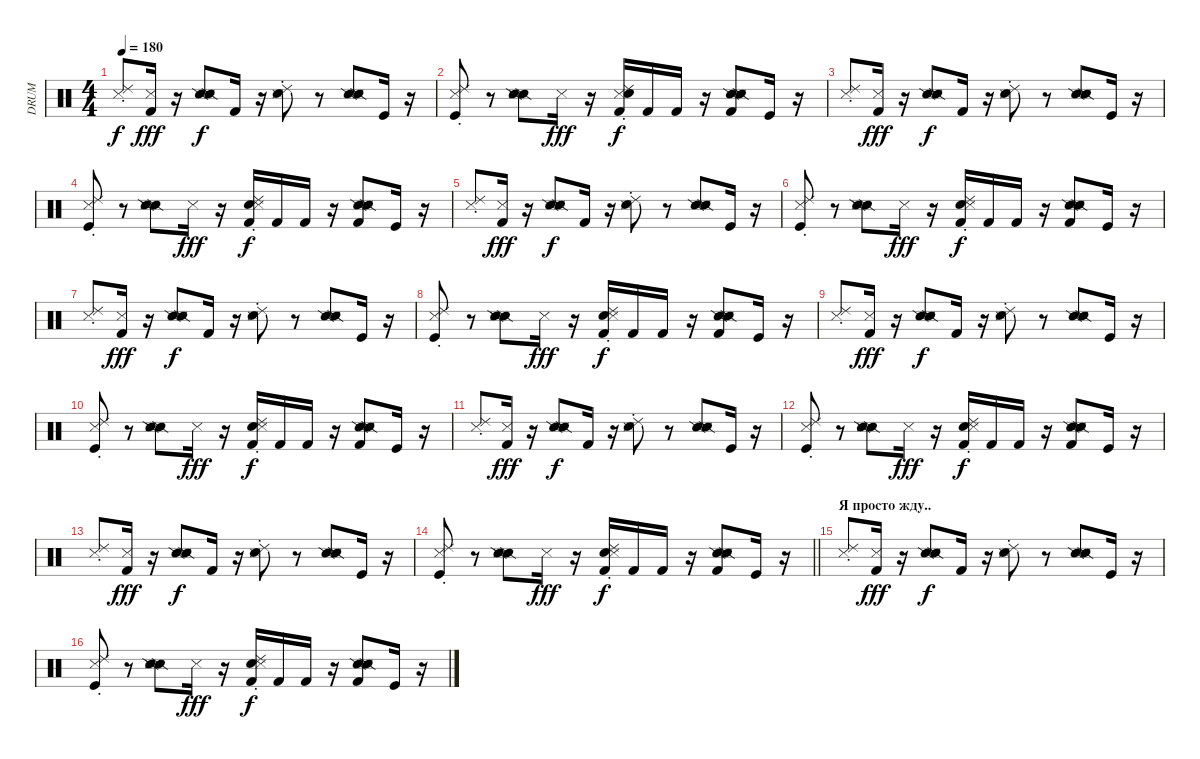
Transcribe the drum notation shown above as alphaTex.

\track ("DRUM" "DRUM") {instrument percussion}
\staff {score}
\articulation defaults
\ts (4 4)
\tempo 180
\clef neutral
\ks c
("Metronome (hit)" "Ride (choke) 2").8{dy f} ("Snare (side stick) 3" "Kick (hit) 2").16{dy fff} r.16 ("Snare (side stick) 2" "Snare (side stick) 2" "Metronome (hit)").8{dy f} "Kick (hit) 2".16 r.16 ("Snare (hit) 2" "Metronome (hit)" "Ride (choke) 2").8 r.8 ("Snare (side stick) 2" "Snare (side stick) 2" "Metronome (hit)").8 "Kick (hit)".16 r.16 |
("Metronome (hit)" "Ride (choke) 2" "Kick (hit)").8 r.8 ("Snare (side stick) 2" "Metronome (hit)" "Snare (side stick) 2").8 "Snare (side stick) 3".16{dy fff} r.16 ("Metronome (hit)" "Ride (choke) 2" "Kick (hit) 2" "Snare (hit) 2").16{dy f} "Kick (hit) 2".16 "Kick (hit) 2".16 r.16 ("Snare (side stick) 2" "Metronome (hit)" "Snare (side stick) 2" "Kick (hit) 2").8 "Kick (hit)".16 r.16 |
("Metronome (hit)" "Ride (choke) 2").8 ("Snare (side stick) 3" "Kick (hit) 2").16{dy fff} r.16 ("Snare (side stick) 2" "Snare (side stick) 2" "Metronome (hit)").8{dy f} "Kick (hit) 2".16 r.16 ("Snare (hit) 2" "Metronome (hit)" "Ride (choke) 2").8 r.8 ("Snare (side stick) 2" "Snare (side stick) 2" "Metronome (hit)").8 "Kick (hit)".16 r.16 |
("Kick (hit)" "Metronome (hit)" "Ride (choke) 2").8 r.8 ("Snare (side stick) 2" "Snare (side stick) 2" "Metronome (hit)").8 "Snare (side stick) 3".16{dy fff} r.16 ("Kick (hit) 2" "Snare (hit) 2" "Metronome (hit)" "Ride (choke) 2").16{dy f} "Kick (hit) 2".16 "Kick (hit) 2".16 r.16 ("Snare (side stick) 2" "Kick (hit) 2" "Snare (side stick) 2" "Metronome (hit)").8 "Kick (hit)".16 r.16 |
("Metronome (hit)" "Ride (choke) 2").8 ("Snare (side stick) 3" "Kick (hit) 2").16{dy fff} r.16 ("Snare (side stick) 2" "Snare (side stick) 2" "Metronome (hit)").8{dy f} "Kick (hit) 2".16 r.16 ("Snare (hit) 2" "Metronome (hit)" "Ride (choke) 2").8 r.8 ("Snare (side stick) 2" "Snare (side stick) 2" "Metronome (hit)").8 "Kick (hit)".16 r.16 |
("Kick (hit)" "Metronome (hit)" "Ride (choke) 2").8 r.8 ("Snare (side stick) 2" "Snare (side stick) 2" "Metronome (hit)").8 "Snare (side stick) 3".16{dy fff} r.16 ("Kick (hit) 2" "Snare (hit) 2" "Metronome (hit)" "Ride (choke) 2").16{dy f} "Kick (hit) 2".16 "Kick (hit) 2".16 r.16 ("Snare (side stick) 2" "Kick (hit) 2" "Snare (side stick) 2" "Metronome (hit)").8 "Kick (hit)".16 r.16 |
("Metronome (hit)" "Ride (choke) 2").8 ("Snare (side stick) 3" "Kick (hit) 2").16{dy fff} r.16 ("Snare (side stick) 2" "Snare (side stick) 2" "Metronome (hit)").8{dy f} "Kick (hit) 2".16 r.16 ("Snare (hit) 2" "Metronome (hit)" "Ride (choke) 2").8 r.8 ("Snare (side stick) 2" "Snare (side stick) 2" "Metronome (hit)").8 "Kick (hit)".16 r.16 |
("Kick (hit)" "Metronome (hit)" "Ride (choke) 2").8 r.8 ("Snare (side stick) 2" "Snare (side stick) 2" "Metronome (hit)").8 "Snare (side stick) 3".16{dy fff} r.16 ("Kick (hit) 2" "Snare (hit) 2" "Metronome (hit)" "Ride (choke) 2").16{dy f} "Kick (hit) 2".16 "Kick (hit) 2".16 r.16 ("Snare (side stick) 2" "Kick (hit) 2" "Snare (side stick) 2" "Metronome (hit)").8 "Kick (hit)".16 r.16 |
("Metronome (hit)" "Ride (choke) 2").8 ("Snare (side stick) 3" "Kick (hit) 2").16{dy fff} r.16 ("Snare (side stick) 2" "Snare (side stick) 2" "Metronome (hit)").8{dy f} "Kick (hit) 2".16 r.16 ("Snare (hit) 2" "Metronome (hit)" "Ride (choke) 2").8 r.8 ("Snare (side stick) 2" "Snare (side stick) 2" "Metronome (hit)").8 "Kick (hit)".16 r.16 |
("Kick (hit)" "Metronome (hit)" "Ride (choke) 2").8 r.8 ("Snare (side stick) 2" "Snare (side stick) 2" "Metronome (hit)").8 "Snare (side stick) 3".16{dy fff} r.16 ("Kick (hit) 2" "Snare (hit) 2" "Metronome (hit)" "Ride (choke) 2").16{dy f} "Kick (hit) 2".16 "Kick (hit) 2".16 r.16 ("Snare (side stick) 2" "Kick (hit) 2" "Snare (side stick) 2" "Metronome (hit)").8 "Kick (hit)".16 r.16 |
("Metronome (hit)" "Ride (choke) 2").8 ("Snare (side stick) 3" "Kick (hit) 2").16{dy fff} r.16 ("Snare (side stick) 2" "Snare (side stick) 2" "Metronome (hit)").8{dy f} "Kick (hit) 2".16 r.16 ("Snare (hit) 2" "Metronome (hit)" "Ride (choke) 2").8 r.8 ("Snare (side stick) 2" "Snare (side stick) 2" "Metronome (hit)").8 "Kick (hit)".16 r.16 |
("Kick (hit)" "Metronome (hit)" "Ride (choke) 2").8 r.8 ("Snare (side stick) 2" "Snare (side stick) 2" "Metronome (hit)").8 "Snare (side stick) 3".16{dy fff} r.16 ("Kick (hit) 2" "Snare (hit) 2" "Metronome (hit)" "Ride (choke) 2").16{dy f} "Kick (hit) 2".16 "Kick (hit) 2".16 r.16 ("Snare (side stick) 2" "Kick (hit) 2" "Snare (side stick) 2" "Metronome (hit)").8 "Kick (hit)".16 r.16 |
("Metronome (hit)" "Ride (choke) 2").8 ("Snare (side stick) 3" "Kick (hit) 2").16{dy fff} r.16 ("Snare (side stick) 2" "Snare (side stick) 2" "Metronome (hit)").8{dy f} "Kick (hit) 2".16 r.16 ("Snare (hit) 2" "Metronome (hit)" "Ride (choke) 2").8 r.8 ("Snare (side stick) 2" "Snare (side stick) 2" "Metronome (hit)").8 "Kick (hit)".16 r.16 |
\barLineRight lightlight
("Kick (hit)" "Metronome (hit)" "Ride (choke) 2").8 r.8 ("Snare (side stick) 2" "Snare (side stick) 2" "Metronome (hit)").8 "Snare (side stick) 3".16{dy fff} r.16 ("Kick (hit) 2" "Snare (hit) 2" "Metronome (hit)" "Ride (choke) 2").16{dy f} "Kick (hit) 2".16 "Kick (hit) 2".16 r.16 ("Snare (side stick) 2" "Kick (hit) 2" "Snare (side stick) 2" "Metronome (hit)").8 "Kick (hit)".16 r.16 |
\section ("" "Я просто жду..")
("Metronome (hit)" "Ride (choke) 2").8 ("Snare (side stick) 3" "Kick (hit) 2").16{dy fff} r.16 ("Snare (side stick) 2" "Snare (side stick) 2" "Metronome (hit)").8{dy f} "Kick (hit) 2".16 r.16 ("Snare (hit) 2" "Metronome (hit)" "Ride (choke) 2").8 r.8 ("Snare (side stick) 2" "Snare (side stick) 2" "Metronome (hit)").8 "Kick (hit)".16 r.16 |
("Kick (hit)" "Metronome (hit)" "Ride (choke) 2").8 r.8 ("Snare (side stick) 2" "Snare (side stick) 2" "Metronome (hit)").8 "Snare (side stick) 3".16{dy fff} r.16 ("Kick (hit) 2" "Snare (hit) 2" "Metronome (hit)" "Ride (choke) 2").16{dy f} "Kick (hit) 2".16 "Kick (hit) 2".16 r.16 ("Snare (side stick) 2" "Kick (hit) 2" "Snare (side stick) 2" "Metronome (hit)").8 "Kick (hit)".16 r.16
